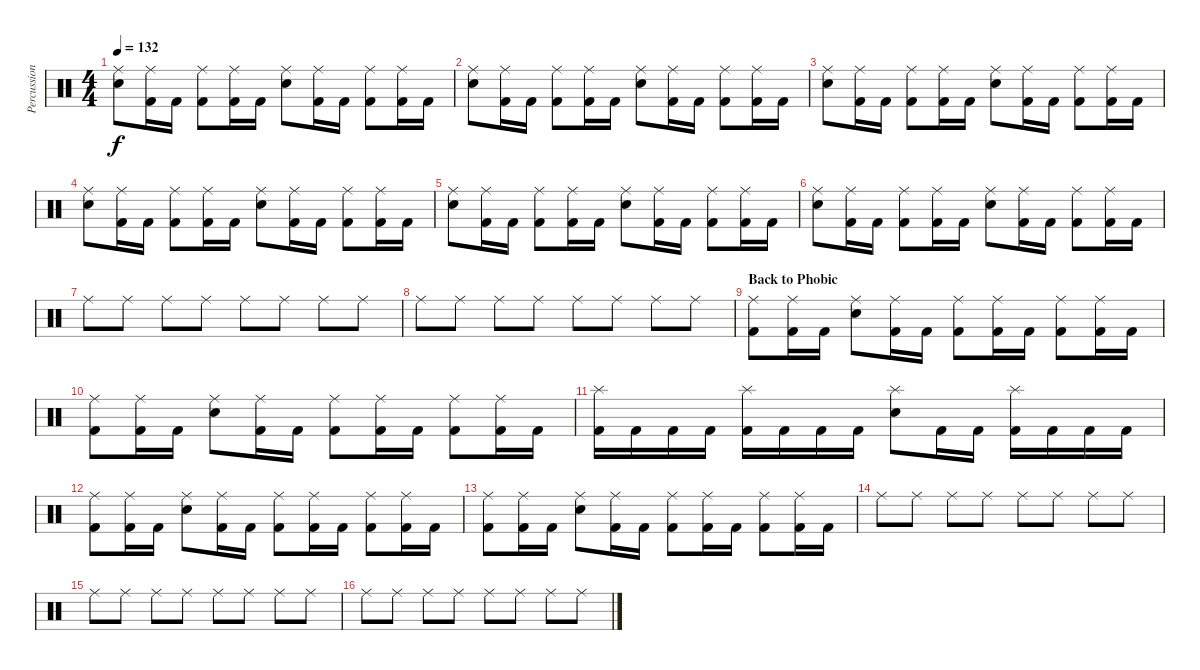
\track ("Percussion" "Percussion") {instrument percussion}
\staff {score}
\articulation defaults
\ts (4 4)
\tempo 132
\clef neutral
\ks c
("Ride (middle)" "Snare (hit) 2").8{dy f} ("Ride (middle)" "Kick (hit) 2").16 "Kick (hit) 2".16 ("Ride (middle)" "Kick (hit) 2").8 ("Ride (middle)" "Kick (hit) 2").16 "Kick (hit) 2".16 ("Ride (middle)" "Snare (hit) 2").8 ("Ride (middle)" "Kick (hit) 2").16 "Kick (hit) 2".16 ("Ride (middle)" "Kick (hit) 2").8 ("Ride (middle)" "Kick (hit) 2").16 "Kick (hit) 2".16 |
("Ride (middle)" "Snare (hit) 2").8 ("Ride (middle)" "Kick (hit) 2").16 "Kick (hit) 2".16 ("Ride (middle)" "Kick (hit) 2").8 ("Ride (middle)" "Kick (hit) 2").16 "Kick (hit) 2".16 ("Ride (middle)" "Snare (hit) 2").8 ("Ride (middle)" "Kick (hit) 2").16 "Kick (hit) 2".16 ("Ride (middle)" "Kick (hit) 2").8 ("Ride (middle)" "Kick (hit) 2").16 "Kick (hit) 2".16 |
("Ride (middle)" "Snare (hit) 2").8 ("Ride (middle)" "Kick (hit) 2").16 "Kick (hit) 2".16 ("Ride (middle)" "Kick (hit) 2").8 ("Ride (middle)" "Kick (hit) 2").16 "Kick (hit) 2".16 ("Ride (middle)" "Snare (hit) 2").8 ("Ride (middle)" "Kick (hit) 2").16 "Kick (hit) 2".16 ("Ride (middle)" "Kick (hit) 2").8 ("Ride (middle)" "Kick (hit) 2").16 "Kick (hit) 2".16 |
("Ride (middle)" "Snare (hit) 2").8 ("Ride (middle)" "Kick (hit) 2").16 "Kick (hit) 2".16 ("Ride (middle)" "Kick (hit) 2").8 ("Ride (middle)" "Kick (hit) 2").16 "Kick (hit) 2".16 ("Ride (middle)" "Snare (hit) 2").8 ("Ride (middle)" "Kick (hit) 2").16 "Kick (hit) 2".16 ("Ride (middle)" "Kick (hit) 2").8 ("Ride (middle)" "Kick (hit) 2").16 "Kick (hit) 2".16 |
("Ride (middle)" "Snare (hit) 2").8 ("Ride (middle)" "Kick (hit) 2").16 "Kick (hit) 2".16 ("Ride (middle)" "Kick (hit) 2").8 ("Ride (middle)" "Kick (hit) 2").16 "Kick (hit) 2".16 ("Ride (middle)" "Snare (hit) 2").8 ("Ride (middle)" "Kick (hit) 2").16 "Kick (hit) 2".16 ("Ride (middle)" "Kick (hit) 2").8 ("Ride (middle)" "Kick (hit) 2").16 "Kick (hit) 2".16 |
("Ride (middle)" "Snare (hit) 2").8 ("Ride (middle)" "Kick (hit) 2").16 "Kick (hit) 2".16 ("Ride (middle)" "Kick (hit) 2").8 ("Ride (middle)" "Kick (hit) 2").16 "Kick (hit) 2".16 ("Ride (middle)" "Snare (hit) 2").8 ("Ride (middle)" "Kick (hit) 2").16 "Kick (hit) 2".16 ("Ride (middle)" "Kick (hit) 2").8 ("Ride (middle)" "Kick (hit) 2").16 "Kick (hit) 2".16 |
"Ride (middle)".8 "Ride (middle)".8 "Ride (middle)".8 "Ride (middle)".8 "Ride (middle)".8 "Ride (middle)".8 "Ride (middle)".8 "Ride (middle)".8 |
"Ride (middle)".8 "Ride (middle)".8 "Ride (middle)".8 "Ride (middle)".8 "Ride (middle)".8 "Ride (middle)".8 "Ride (middle)".8 "Ride (middle)".8 |
\section ("" "Back to Phobic")
("Ride (middle)" "Kick (hit) 2").8 ("Ride (middle)" "Kick (hit) 2").16 "Kick (hit) 2".16 ("Ride (middle)" "Snare (hit) 2").8 ("Ride (middle)" "Kick (hit) 2").16 "Kick (hit) 2".16 ("Ride (middle)" "Kick (hit) 2").8 ("Ride (middle)" "Kick (hit) 2").16 "Kick (hit) 2".16 ("Ride (middle)" "Kick (hit) 2").8 ("Ride (middle)" "Kick (hit) 2").16 "Kick (hit) 2".16 |
("Ride (middle)" "Kick (hit) 2").8 ("Ride (middle)" "Kick (hit) 2").16 "Kick (hit) 2".16 ("Ride (middle)" "Snare (hit) 2").8 ("Ride (middle)" "Kick (hit) 2").16 "Kick (hit) 2".16 ("Ride (middle)" "Kick (hit) 2").8 ("Ride (middle)" "Kick (hit) 2").16 "Kick (hit) 2".16 ("Ride (middle)" "Kick (hit) 2").8 ("Ride (middle)" "Kick (hit) 2").16 "Kick (hit) 2".16 |
("Splash (hit)" "Kick (hit) 2").16 "Kick (hit) 2".16 "Kick (hit) 2".16 "Kick (hit) 2".16 ("Splash (hit)" "Kick (hit) 2").16 "Kick (hit) 2".16 "Kick (hit) 2".16 "Kick (hit) 2".16 ("Splash (hit)" "Snare (hit) 2").8 "Kick (hit) 2".16 "Kick (hit) 2".16 ("Splash (hit)" "Kick (hit) 2").16 "Kick (hit) 2".16 "Kick (hit) 2".16 "Kick (hit) 2".16 |
("Ride (middle)" "Kick (hit) 2").8 ("Ride (middle)" "Kick (hit) 2").16 "Kick (hit) 2".16 ("Ride (middle)" "Snare (hit) 2").8 ("Ride (middle)" "Kick (hit) 2").16 "Kick (hit) 2".16 ("Ride (middle)" "Kick (hit) 2").8 ("Ride (middle)" "Kick (hit) 2").16 "Kick (hit) 2".16 ("Ride (middle)" "Kick (hit) 2").8 ("Ride (middle)" "Kick (hit) 2").16 "Kick (hit) 2".16 |
("Ride (middle)" "Kick (hit) 2").8 ("Ride (middle)" "Kick (hit) 2").16 "Kick (hit) 2".16 ("Ride (middle)" "Snare (hit) 2").8 ("Ride (middle)" "Kick (hit) 2").16 "Kick (hit) 2".16 ("Ride (middle)" "Kick (hit) 2").8 ("Ride (middle)" "Kick (hit) 2").16 "Kick (hit) 2".16 ("Ride (middle)" "Kick (hit) 2").8 ("Ride (middle)" "Kick (hit) 2").16 "Kick (hit) 2".16 |
"Ride (middle)".8 "Ride (middle)".8 "Ride (middle)".8 "Ride (middle)".8 "Ride (middle)".8 "Ride (middle)".8 "Ride (middle)".8 "Ride (middle)".8 |
"Ride (middle)".8 "Ride (middle)".8 "Ride (middle)".8 "Ride (middle)".8 "Ride (middle)".8 "Ride (middle)".8 "Ride (middle)".8 "Ride (middle)".8 |
"Ride (middle)".8 "Ride (middle)".8 "Ride (middle)".8 "Ride (middle)".8 "Ride (middle)".8 "Ride (middle)".8 "Ride (middle)".8 "Ride (middle)".8
